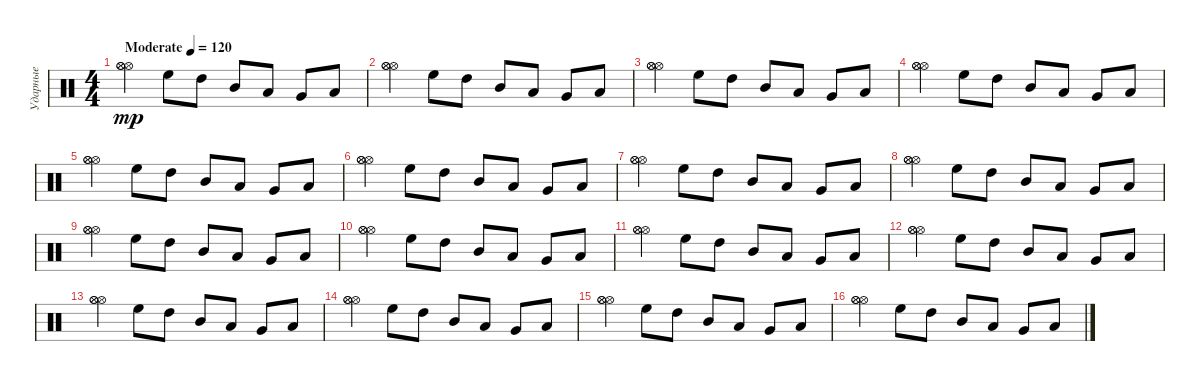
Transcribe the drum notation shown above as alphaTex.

\track ("Ударные" "Ударные") {instrument percussion}
\staff {score}
\articulation defaults
\ts (4 4)
\tempo (120 "Moderate")
\clef neutral
\ks c
("Hi-Hat (open)" "Hi-Hat (open)" "Hi-Hat (open)").4{dy mp} "High Floor Tom (hit)".8 "High Tom (hit)".8 "Mid Tom (hit)".8 "Low Tom (hit)".8 "Very Low Tom (hit)".8 "Low Floor Tom (hit)".8 |
("Hi-Hat (open)" "Hi-Hat (open)" "Hi-Hat (open)").4 "High Floor Tom (hit)".8 "High Tom (hit)".8 "Mid Tom (hit)".8 "Low Tom (hit)".8 "Very Low Tom (hit)".8 "Low Floor Tom (hit)".8 |
("Hi-Hat (open)" "Hi-Hat (open)" "Hi-Hat (open)").4 "High Floor Tom (hit)".8 "High Tom (hit)".8 "Mid Tom (hit)".8 "Low Tom (hit)".8 "Very Low Tom (hit)".8 "Low Floor Tom (hit)".8 |
("Hi-Hat (open)" "Hi-Hat (open)" "Hi-Hat (open)").4 "High Floor Tom (hit)".8 "High Tom (hit)".8 "Mid Tom (hit)".8 "Low Tom (hit)".8 "Very Low Tom (hit)".8 "Low Floor Tom (hit)".8 |
("Hi-Hat (open)" "Hi-Hat (open)" "Hi-Hat (open)").4 "High Floor Tom (hit)".8 "High Tom (hit)".8 "Mid Tom (hit)".8 "Low Tom (hit)".8 "Very Low Tom (hit)".8 "Low Floor Tom (hit)".8 |
("Hi-Hat (open)" "Hi-Hat (open)" "Hi-Hat (open)").4 "High Floor Tom (hit)".8 "High Tom (hit)".8 "Mid Tom (hit)".8 "Low Tom (hit)".8 "Very Low Tom (hit)".8 "Low Floor Tom (hit)".8 |
("Hi-Hat (open)" "Hi-Hat (open)" "Hi-Hat (open)").4 "High Floor Tom (hit)".8 "High Tom (hit)".8 "Mid Tom (hit)".8 "Low Tom (hit)".8 "Very Low Tom (hit)".8 "Low Floor Tom (hit)".8 |
("Hi-Hat (open)" "Hi-Hat (open)" "Hi-Hat (open)").4 "High Floor Tom (hit)".8 "High Tom (hit)".8 "Mid Tom (hit)".8 "Low Tom (hit)".8 "Very Low Tom (hit)".8 "Low Floor Tom (hit)".8 |
("Hi-Hat (open)" "Hi-Hat (open)" "Hi-Hat (open)").4 "High Floor Tom (hit)".8 "High Tom (hit)".8 "Mid Tom (hit)".8 "Low Tom (hit)".8 "Very Low Tom (hit)".8 "Low Floor Tom (hit)".8 |
("Hi-Hat (open)" "Hi-Hat (open)" "Hi-Hat (open)").4 "High Floor Tom (hit)".8 "High Tom (hit)".8 "Mid Tom (hit)".8 "Low Tom (hit)".8 "Very Low Tom (hit)".8 "Low Floor Tom (hit)".8 |
("Hi-Hat (open)" "Hi-Hat (open)" "Hi-Hat (open)").4 "High Floor Tom (hit)".8 "High Tom (hit)".8 "Mid Tom (hit)".8 "Low Tom (hit)".8 "Very Low Tom (hit)".8 "Low Floor Tom (hit)".8 |
("Hi-Hat (open)" "Hi-Hat (open)" "Hi-Hat (open)").4 "High Floor Tom (hit)".8 "High Tom (hit)".8 "Mid Tom (hit)".8 "Low Tom (hit)".8 "Very Low Tom (hit)".8 "Low Floor Tom (hit)".8 |
("Hi-Hat (open)" "Hi-Hat (open)" "Hi-Hat (open)").4 "High Floor Tom (hit)".8 "High Tom (hit)".8 "Mid Tom (hit)".8 "Low Tom (hit)".8 "Very Low Tom (hit)".8 "Low Floor Tom (hit)".8 |
("Hi-Hat (open)" "Hi-Hat (open)" "Hi-Hat (open)").4 "High Floor Tom (hit)".8 "High Tom (hit)".8 "Mid Tom (hit)".8 "Low Tom (hit)".8 "Very Low Tom (hit)".8 "Low Floor Tom (hit)".8 |
("Hi-Hat (open)" "Hi-Hat (open)" "Hi-Hat (open)").4 "High Floor Tom (hit)".8 "High Tom (hit)".8 "Mid Tom (hit)".8 "Low Tom (hit)".8 "Very Low Tom (hit)".8 "Low Floor Tom (hit)".8 |
("Hi-Hat (open)" "Hi-Hat (open)" "Hi-Hat (open)").4 "High Floor Tom (hit)".8 "High Tom (hit)".8 "Mid Tom (hit)".8 "Low Tom (hit)".8 "Very Low Tom (hit)".8 "Low Floor Tom (hit)".8
